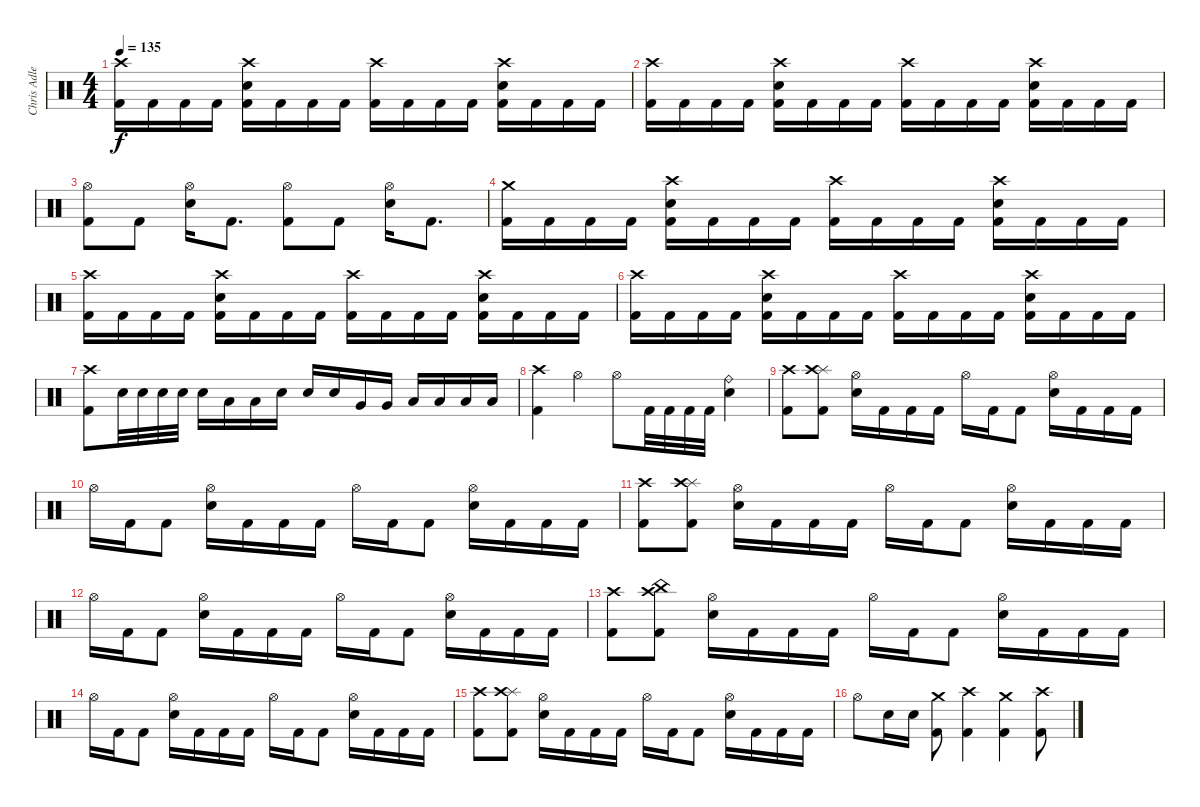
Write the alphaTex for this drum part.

\track ("Chris Adler Drums)" "Chris Adle") {instrument percussion}
\staff {score}
\articulation defaults
\ts (4 4)
\tempo 135
\clef neutral
\ks c
("Crash high (hit)" "Kick (hit) 2").16{dy f} "Kick (hit) 2".16 "Kick (hit) 2".16 "Kick (hit) 2".16 ("Crash high (hit)" "Snare (hit) 2" "Kick (hit) 2").16 "Kick (hit) 2".16 "Kick (hit) 2".16 "Kick (hit) 2".16 ("Crash high (hit)" "Kick (hit) 2").16 "Kick (hit) 2".16 "Kick (hit) 2".16 "Kick (hit) 2".16 ("Crash high (hit)" "Snare (hit) 2" "Kick (hit) 2").16 "Kick (hit) 2".16 "Kick (hit) 2".16 "Kick (hit) 2".16 |
("Crash high (hit)" "Kick (hit) 2").16 "Kick (hit) 2".16 "Kick (hit) 2".16 "Kick (hit) 2".16 ("Crash high (hit)" "Snare (hit) 2" "Kick (hit) 2").16 "Kick (hit) 2".16 "Kick (hit) 2".16 "Kick (hit) 2".16 ("Crash high (hit)" "Kick (hit) 2").16 "Kick (hit) 2".16 "Kick (hit) 2".16 "Kick (hit) 2".16 ("Crash high (hit)" "Snare (hit) 2" "Kick (hit) 2").16 "Kick (hit) 2".16 "Kick (hit) 2".16 "Kick (hit) 2".16 |
("Hi-Hat (open)" "Kick (hit) 2").8 "Kick (hit) 2".8 ("Hi-Hat (open)" "Snare (hit) 2").16 "Kick (hit) 2".8{d} ("Hi-Hat (open)" "Kick (hit) 2").8 "Kick (hit) 2".8 ("Hi-Hat (open)" "Snare (hit) 2").16 "Kick (hit) 2".8{d} |
("Crash medium (hit)" "Kick (hit) 2").16 "Kick (hit) 2".16 "Kick (hit) 2".16 "Kick (hit) 2".16 ("Crash high (hit)" "Snare (hit) 2" "Kick (hit) 2").16 "Kick (hit) 2".16 "Kick (hit) 2".16 "Kick (hit) 2".16 ("Crash high (hit)" "Kick (hit) 2").16 "Kick (hit) 2".16 "Kick (hit) 2".16 "Kick (hit) 2".16 ("Crash high (hit)" "Snare (hit) 2" "Kick (hit) 2").16 "Kick (hit) 2".16 "Kick (hit) 2".16 "Kick (hit) 2".16 |
("Crash high (hit)" "Kick (hit) 2").16 "Kick (hit) 2".16 "Kick (hit) 2".16 "Kick (hit) 2".16 ("Crash high (hit)" "Snare (hit) 2" "Kick (hit) 2").16 "Kick (hit) 2".16 "Kick (hit) 2".16 "Kick (hit) 2".16 ("Crash high (hit)" "Kick (hit) 2").16 "Kick (hit) 2".16 "Kick (hit) 2".16 "Kick (hit) 2".16 ("Crash high (hit)" "Snare (hit) 2" "Kick (hit) 2").16 "Kick (hit) 2".16 "Kick (hit) 2".16 "Kick (hit) 2".16 |
("Crash high (hit)" "Kick (hit) 2").16 "Kick (hit) 2".16 "Kick (hit) 2".16 "Kick (hit) 2".16 ("Crash high (hit)" "Snare (hit) 2" "Kick (hit) 2").16 "Kick (hit) 2".16 "Kick (hit) 2".16 "Kick (hit) 2".16 ("Crash high (hit)" "Kick (hit) 2").16 "Kick (hit) 2".16 "Kick (hit) 2".16 "Kick (hit) 2".16 ("Crash high (hit)" "Snare (hit) 2" "Kick (hit) 2").16 "Kick (hit) 2".16 "Kick (hit) 2".16 "Kick (hit) 2".16 |
("Kick (hit) 2" "Crash high (hit)").8 "Snare (hit) 2".32 "Snare (hit) 2".32 "Snare (hit) 2".32 "Snare (hit) 2".32 "Snare (hit) 2".16 "Low Tom (hit)".16 "Low Tom (hit)".16 "Snare (hit) 2".16 "Snare (hit) 2".16 "Snare (hit) 2".16 "Very Low Tom (hit)".16 "Very Low Tom (hit)".16 "Low Floor Tom (hit)".16 "Low Floor Tom (hit)".16 "Low Floor Tom (hit)".16 "Low Floor Tom (hit)".16 |
("Kick (hit) 2" "Crash high (hit)").4 "Hi-Hat (open)".4 "Hi-Hat (open)".8 "Kick (hit) 2".32 "Kick (hit) 2".32 "Kick (hit) 2".32 "Kick (hit) 2".32 ("Snare (hit) 2" "Ride (bell)").4 |
("Crash high (hit)" "Kick (hit) 2").8 ("Splash (hit)" "Crash high (hit)" "Kick (hit) 2").8 ("Hi-Hat (open)" "Snare (hit) 2").16 "Kick (hit) 2".16 "Kick (hit) 2".16 "Kick (hit) 2".16 "Hi-Hat (open)".16 "Kick (hit) 2".16 "Kick (hit) 2".8 ("Hi-Hat (open)" "Snare (hit) 2").16 "Kick (hit) 2".16 "Kick (hit) 2".16 "Kick (hit) 2".16 |
"Hi-Hat (open)".16 "Kick (hit) 2".16 "Kick (hit) 2".8 ("Hi-Hat (open)" "Snare (hit) 2").16 "Kick (hit) 2".16 "Kick (hit) 2".16 "Kick (hit) 2".16 "Hi-Hat (open)".16 "Kick (hit) 2".16 "Kick (hit) 2".8 ("Hi-Hat (open)" "Snare (hit) 2").16 "Kick (hit) 2".16 "Kick (hit) 2".16 "Kick (hit) 2".16 |
("Crash high (hit)" "Kick (hit) 2").8 ("Splash (hit)" "Crash high (hit)" "Kick (hit) 2").8 ("Hi-Hat (open)" "Snare (hit) 2").16 "Kick (hit) 2".16 "Kick (hit) 2".16 "Kick (hit) 2".16 "Hi-Hat (open)".16 "Kick (hit) 2".16 "Kick (hit) 2".8 ("Hi-Hat (open)" "Snare (hit) 2").16 "Kick (hit) 2".16 "Kick (hit) 2".16 "Kick (hit) 2".16 |
"Hi-Hat (open)".16 "Kick (hit) 2".16 "Kick (hit) 2".8 ("Hi-Hat (open)" "Snare (hit) 2").16 "Kick (hit) 2".16 "Kick (hit) 2".16 "Kick (hit) 2".16 "Hi-Hat (open)".16 "Kick (hit) 2".16 "Kick (hit) 2".8 ("Hi-Hat (open)" "Snare (hit) 2").16 "Kick (hit) 2".16 "Kick (hit) 2".16 "Kick (hit) 2".16 |
("Crash high (hit)" "Kick (hit) 2").8 ("China (hit)" "Crash high (hit)" "Kick (hit) 2").8 ("Hi-Hat (open)" "Snare (hit) 2").16 "Kick (hit) 2".16 "Kick (hit) 2".16 "Kick (hit) 2".16 "Hi-Hat (open)".16 "Kick (hit) 2".16 "Kick (hit) 2".8 ("Hi-Hat (open)" "Snare (hit) 2").16 "Kick (hit) 2".16 "Kick (hit) 2".16 "Kick (hit) 2".16 |
"Hi-Hat (open)".16 "Kick (hit) 2".16 "Kick (hit) 2".8 ("Hi-Hat (open)" "Snare (hit) 2").16 "Kick (hit) 2".16 "Kick (hit) 2".16 "Kick (hit) 2".16 "Hi-Hat (open)".16 "Kick (hit) 2".16 "Kick (hit) 2".8 ("Hi-Hat (open)" "Snare (hit) 2").16 "Kick (hit) 2".16 "Kick (hit) 2".16 "Kick (hit) 2".16 |
("Crash high (hit)" "Kick (hit) 2").8 ("Splash (hit)" "Crash high (hit)" "Kick (hit) 2").8 ("Hi-Hat (open)" "Snare (hit) 2").16 "Kick (hit) 2".16 "Kick (hit) 2".16 "Kick (hit) 2".16 "Hi-Hat (open)".16 "Kick (hit) 2".16 "Kick (hit) 2".8 ("Hi-Hat (open)" "Snare (hit) 2").16 "Kick (hit) 2".16 "Kick (hit) 2".16 "Kick (hit) 2".16 |
"Hi-Hat (open)".8 "Snare (hit) 2".16 "Snare (hit) 2".16 ("Crash medium (hit)" "Kick (hit) 2").8 ("Crash high (hit)" "Kick (hit) 2").4 ("Crash medium (hit)" "Kick (hit) 2").4 ("Crash high (hit)" "Kick (hit) 2").8
